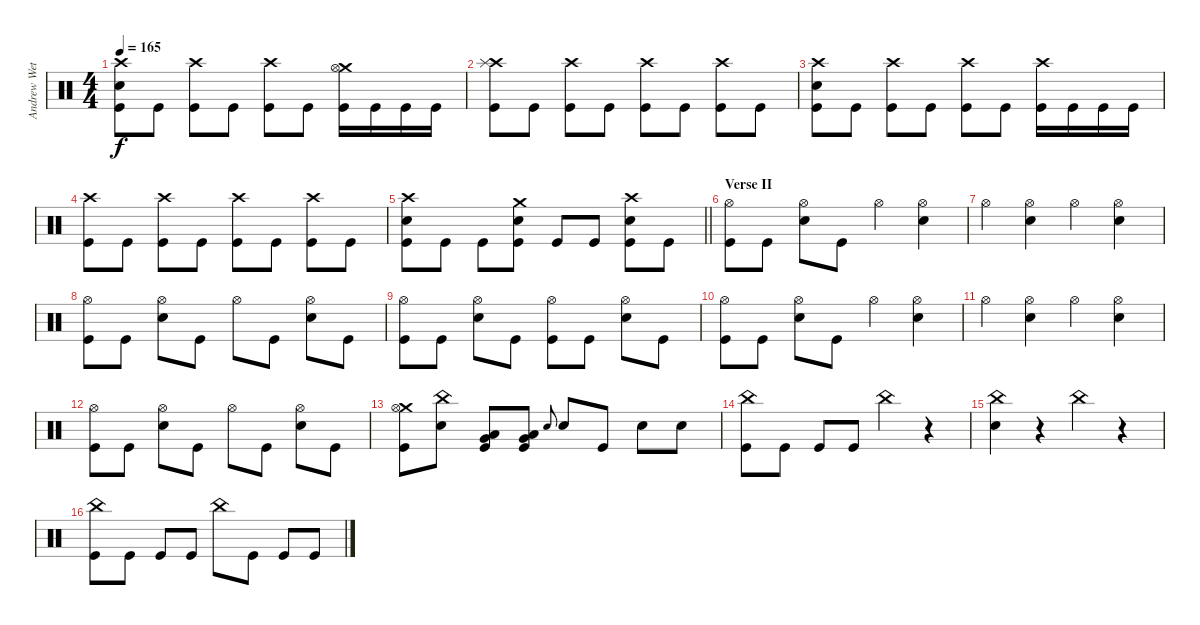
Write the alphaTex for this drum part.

\track ("Andrew Wetzel" "Andrew Wet") {instrument percussion}
\staff {score}
\articulation defaults
\ts (4 4)
\tempo 165
\clef neutral
\ks c
("Crash high (hit)" "Snare (hit) 2" "Kick (hit)").8{dy f} "Kick (hit)".8 ("Crash high (hit)" "Kick (hit)").8 "Kick (hit)".8 ("Crash high (hit)" "Kick (hit)").8 "Kick (hit)".8 ("Crash medium (hit)" "Hi-Hat (open)" "Kick (hit)").16 "Kick (hit)".16 "Kick (hit)".16 "Kick (hit)".16 |
("Crash high (hit)" "Splash (hit)" "Kick (hit)").8 "Kick (hit)".8 ("Crash high (hit)" "Kick (hit)").8 "Kick (hit)".8 ("Crash high (hit)" "Kick (hit)").8 "Kick (hit)".8 ("Crash high (hit)" "Kick (hit)").8 "Kick (hit)".8 |
("Crash high (hit)" "Snare (hit) 2" "Kick (hit)").8 "Kick (hit)".8 ("Crash high (hit)" "Kick (hit)").8 "Kick (hit)".8 ("Crash high (hit)" "Kick (hit)").8 "Kick (hit)".8 ("Crash high (hit)" "Kick (hit)").16 "Kick (hit)".16 "Kick (hit)".16 "Kick (hit)".16 |
("Crash high (hit)" "Kick (hit)").8 "Kick (hit)".8 ("Crash high (hit)" "Kick (hit)").8 "Kick (hit)".8 ("Crash high (hit)" "Kick (hit)").8 "Kick (hit)".8 ("Crash high (hit)" "Kick (hit)").8 "Kick (hit)".8 |
\barLineRight lightlight
("Crash high (hit)" "Snare (hit) 2" "Kick (hit)").8 "Kick (hit)".8 "Kick (hit)".8 ("Crash medium (hit)" "Snare (hit) 2" "Kick (hit)").8 "Kick (hit)".8 "Kick (hit)".8 ("Crash high (hit)" "Snare (hit) 2" "Kick (hit)").8 "Kick (hit)".8 |
\section ("" "Verse II")
("Hi-Hat (open)" "Kick (hit)").8 "Kick (hit)".8 ("Hi-Hat (open)" "Snare (hit) 2").8 "Kick (hit)".8 "Hi-Hat (open)".4 ("Hi-Hat (open)" "Snare (hit) 2").4 |
"Hi-Hat (open)".4 ("Hi-Hat (open)" "Snare (hit) 2").4 "Hi-Hat (open)".4 ("Hi-Hat (open)" "Snare (hit) 2").4 |
("Hi-Hat (open)" "Kick (hit)").8 "Kick (hit)".8 ("Hi-Hat (open)" "Snare (hit) 2").8 "Kick (hit)".8 "Hi-Hat (open)".8 "Kick (hit)".8 ("Hi-Hat (open)" "Snare (hit) 2").8 "Kick (hit)".8 |
("Hi-Hat (open)" "Kick (hit)").8 "Kick (hit)".8 ("Hi-Hat (open)" "Snare (hit) 2").8 "Kick (hit)".8 ("Hi-Hat (open)" "Kick (hit)").8 "Kick (hit)".8 ("Hi-Hat (open)" "Snare (hit) 2").8 "Kick (hit)".8 |
("Hi-Hat (open)" "Kick (hit)").8 "Kick (hit)".8 ("Hi-Hat (open)" "Snare (hit) 2").8 "Kick (hit)".8 "Hi-Hat (open)".4 ("Hi-Hat (open)" "Snare (hit) 2").4 |
"Hi-Hat (open)".4 ("Hi-Hat (open)" "Snare (hit) 2").4 "Hi-Hat (open)".4 ("Hi-Hat (open)" "Snare (hit) 2").4 |
("Hi-Hat (open)" "Kick (hit)").8 "Kick (hit)".8 ("Hi-Hat (open)" "Snare (hit) 2").8 "Kick (hit)".8 "Hi-Hat (open)".8 "Kick (hit)".8 ("Hi-Hat (open)" "Snare (hit) 2").8 "Kick (hit)".8 |
("Crash medium (hit)" "Hi-Hat (open)" "Kick (hit)").8 ("China (hit)" "Snare (hit) 2").8 ("Low Tom (hit)" "Very Low Tom (hit)" "Kick (hit)").8 ("Low Tom (hit)" "Very Low Tom (hit)" "Kick (hit)").8 "Snare (hit) 2".8{gr onbeat} "Snare (hit) 2".8 "Kick (hit)".8 "Snare (hit) 2".8 "Snare (hit) 2".8 |
("China (hit)" "Kick (hit)").8 "Kick (hit)".8 "Kick (hit)".8 "Kick (hit)".8 "China (hit)".4 r.4 |
("China (hit)" "Snare (hit) 2").4 r.4 "China (hit)".4 r.4 |
("China (hit)" "Kick (hit)").8 "Kick (hit)".8 "Kick (hit)".8 "Kick (hit)".8 "China (hit)".8 "Kick (hit)".8 "Kick (hit)".8 "Kick (hit)".8
